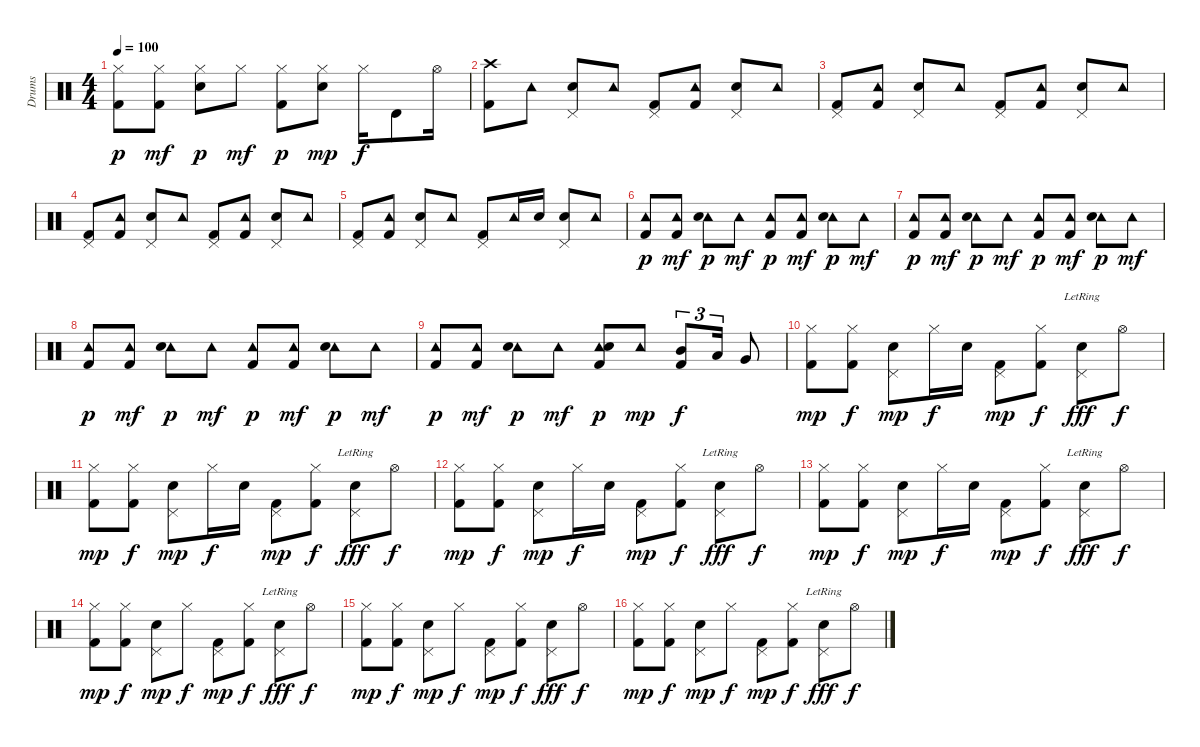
\track ("Drums" "Drums") {instrument percussion}
\staff {score}
\articulation defaults
\ts (4 4)
\tempo 100
\clef neutral
\ks c
("Hi-Hat (closed)" "Kick (hit) 2").8{dy p} ("Hi-Hat (closed)" "Kick (hit) 2").8{dy mf} ("Hi-Hat (closed)" "Snare (hit) 2").8{dy p} "Hi-Hat (closed)".8{dy mf} ("Hi-Hat (closed)" "Kick (hit) 2").8{dy p} ("Hi-Hat (closed)" "Snare (hit) 2").8{dy mp} "Hi-Hat (closed)".16{dy f} "Timbale high (hit)".8 "Hi-Hat (open)".16 |
("Crash high (hit)" "Kick (hit) 2").8 "Tambourine (hit)".8 ("Pedal Hi-Hat (hit)" "Snare (hit) 2").8 "Tambourine (hit)".8 ("Pedal Hi-Hat (hit)" "Kick (hit) 2").8 ("Tambourine (hit)" "Kick (hit) 2").8 ("Pedal Hi-Hat (hit)" "Snare (hit) 2").8 "Tambourine (hit)".8 |
("Pedal Hi-Hat (hit)" "Kick (hit) 2").8 ("Tambourine (hit)" "Kick (hit) 2").8 ("Pedal Hi-Hat (hit)" "Snare (hit) 2").8 "Tambourine (hit)".8 ("Pedal Hi-Hat (hit)" "Kick (hit) 2").8 ("Tambourine (hit)" "Kick (hit) 2").8 ("Pedal Hi-Hat (hit)" "Snare (hit) 2").8 "Tambourine (hit)".8 |
("Pedal Hi-Hat (hit)" "Kick (hit) 2").8 ("Tambourine (hit)" "Kick (hit) 2").8 ("Pedal Hi-Hat (hit)" "Snare (hit) 2").8 "Tambourine (hit)".8 ("Pedal Hi-Hat (hit)" "Kick (hit) 2").8 ("Tambourine (hit)" "Kick (hit) 2").8 ("Pedal Hi-Hat (hit)" "Snare (hit) 2").8 "Tambourine (hit)".8 |
("Pedal Hi-Hat (hit)" "Kick (hit) 2").8 ("Tambourine (hit)" "Kick (hit) 2").8 ("Pedal Hi-Hat (hit)" "Snare (hit) 2").8 "Tambourine (hit)".8 ("Pedal Hi-Hat (hit)" "Kick (hit) 2").8 "Tambourine (hit)".16 "Snare (hit) 2".16 ("Pedal Hi-Hat (hit)" "Snare (hit) 2").8 "Tambourine (hit)".8 |
("Tambourine (hit)" "Kick (hit) 2").8{dy p} ("Tambourine (hit)" "Kick (hit) 2").8{dy mf} ("Tambourine (hit)" "Snare (hit) 2").8{dy p} "Tambourine (hit)".8{dy mf} ("Tambourine (hit)" "Kick (hit) 2").8{dy p} ("Tambourine (hit)" "Kick (hit) 2").8{dy mf} ("Tambourine (hit)" "Snare (hit) 2").8{dy p} "Tambourine (hit)".8{dy mf} |
("Tambourine (hit)" "Kick (hit) 2").8{dy p} ("Tambourine (hit)" "Kick (hit) 2").8{dy mf} ("Tambourine (hit)" "Snare (hit) 2").8{dy p} "Tambourine (hit)".8{dy mf} ("Tambourine (hit)" "Kick (hit) 2").8{dy p} ("Tambourine (hit)" "Kick (hit) 2").8{dy mf} ("Tambourine (hit)" "Snare (hit) 2").8{dy p} "Tambourine (hit)".8{dy mf} |
("Tambourine (hit)" "Kick (hit) 2").8{dy p} ("Tambourine (hit)" "Kick (hit) 2").8{dy mf} ("Tambourine (hit)" "Snare (hit) 2").8{dy p} "Tambourine (hit)".8{dy mf} ("Tambourine (hit)" "Kick (hit) 2").8{dy p} ("Tambourine (hit)" "Kick (hit) 2").8{dy mf} ("Tambourine (hit)" "Snare (hit) 2").8{dy p} "Tambourine (hit)".8{dy mf} |
("Tambourine (hit)" "Kick (hit) 2").8{dy p} ("Tambourine (hit)" "Kick (hit) 2").8{dy mf} ("Tambourine (hit)" "Snare (hit) 2").8{dy p} "Tambourine (hit)".8{dy mf} ("Tambourine (hit)" "Snare (hit) 2" "Kick (hit) 2").8{dy p} "Tambourine (hit)".8{dy mp} ("Mid Tom (hit)" "Kick (hit) 2").8{tu (3 2) dy f} "Low Tom (hit)".16{tu (3 2) bd 120} "Very Low Tom (hit)".8 |
("Hi-Hat (closed)" "Kick (hit) 2").8{dy mp volume 10} ("Hi-Hat (closed)" "Kick (hit) 2").8{dy f} ("Pedal Hi-Hat (hit)" "Snare (hit) 2").8{dy mp} "Hi-Hat (closed)".16{dy f} "Snare (hit) 2".16 ("Pedal Hi-Hat (hit)" "Kick (hit) 2").8{dy mp} ("Hi-Hat (closed)" "Kick (hit) 2").8{dy f} ("Pedal Hi-Hat (hit)" "Snare (hit) 2"{lr}).8{dy fff} "Hi-Hat (open)".8{dy f} |
("Hi-Hat (closed)" "Kick (hit) 2").8{dy mp volume 10} ("Hi-Hat (closed)" "Kick (hit) 2").8{dy f} ("Pedal Hi-Hat (hit)" "Snare (hit) 2").8{dy mp} "Hi-Hat (closed)".16{dy f} "Snare (hit) 2".16 ("Pedal Hi-Hat (hit)" "Kick (hit) 2").8{dy mp} ("Hi-Hat (closed)" "Kick (hit) 2").8{dy f} ("Pedal Hi-Hat (hit)" "Snare (hit) 2"{lr}).8{dy fff} "Hi-Hat (open)".8{dy f} |
("Hi-Hat (closed)" "Kick (hit) 2").8{dy mp volume 10} ("Hi-Hat (closed)" "Kick (hit) 2").8{dy f} ("Pedal Hi-Hat (hit)" "Snare (hit) 2").8{dy mp} "Hi-Hat (closed)".16{dy f} "Snare (hit) 2".16 ("Pedal Hi-Hat (hit)" "Kick (hit) 2").8{dy mp} ("Hi-Hat (closed)" "Kick (hit) 2").8{dy f} ("Pedal Hi-Hat (hit)" "Snare (hit) 2"{lr}).8{dy fff} "Hi-Hat (open)".8{dy f} |
("Hi-Hat (closed)" "Kick (hit) 2").8{dy mp volume 10} ("Hi-Hat (closed)" "Kick (hit) 2").8{dy f} ("Pedal Hi-Hat (hit)" "Snare (hit) 2").8{dy mp} "Hi-Hat (closed)".16{dy f} "Snare (hit) 2".16 ("Pedal Hi-Hat (hit)" "Kick (hit) 2").8{dy mp} ("Hi-Hat (closed)" "Kick (hit) 2").8{dy f} ("Pedal Hi-Hat (hit)" "Snare (hit) 2"{lr}).8{dy fff} "Hi-Hat (open)".8{dy f} |
("Hi-Hat (closed)" "Kick (hit) 2").8{dy mp volume 10} ("Hi-Hat (closed)" "Kick (hit) 2").8{dy f} ("Pedal Hi-Hat (hit)" "Snare (hit) 2").8{dy mp} "Hi-Hat (closed)".8{dy f} ("Pedal Hi-Hat (hit)" "Kick (hit) 2").8{dy mp} ("Hi-Hat (closed)" "Kick (hit) 2").8{dy f} ("Pedal Hi-Hat (hit)" "Snare (hit) 2"{lr}).8{dy fff} "Hi-Hat (open)".8{dy f} |
("Hi-Hat (closed)" "Kick (hit) 2").8{dy mp volume 10} ("Hi-Hat (closed)" "Kick (hit) 2").8{dy f} ("Pedal Hi-Hat (hit)" "Snare (hit) 2").8{dy mp} "Hi-Hat (closed)".8{dy f} ("Pedal Hi-Hat (hit)" "Kick (hit) 2").8{dy mp} ("Hi-Hat (closed)" "Kick (hit) 2").8{dy f} ("Pedal Hi-Hat (hit)" "Snare (hit) 2").8{dy fff} "Hi-Hat (open)".8{dy f} |
("Hi-Hat (closed)" "Kick (hit) 2").8{dy mp volume 10} ("Hi-Hat (closed)" "Kick (hit) 2").8{dy f} ("Pedal Hi-Hat (hit)" "Snare (hit) 2").8{dy mp} "Hi-Hat (closed)".8{dy f} ("Pedal Hi-Hat (hit)" "Kick (hit) 2").8{dy mp} ("Hi-Hat (closed)" "Kick (hit) 2").8{dy f} ("Pedal Hi-Hat (hit)" "Snare (hit) 2"{lr}).8{dy fff} "Hi-Hat (open)".8{dy f}
